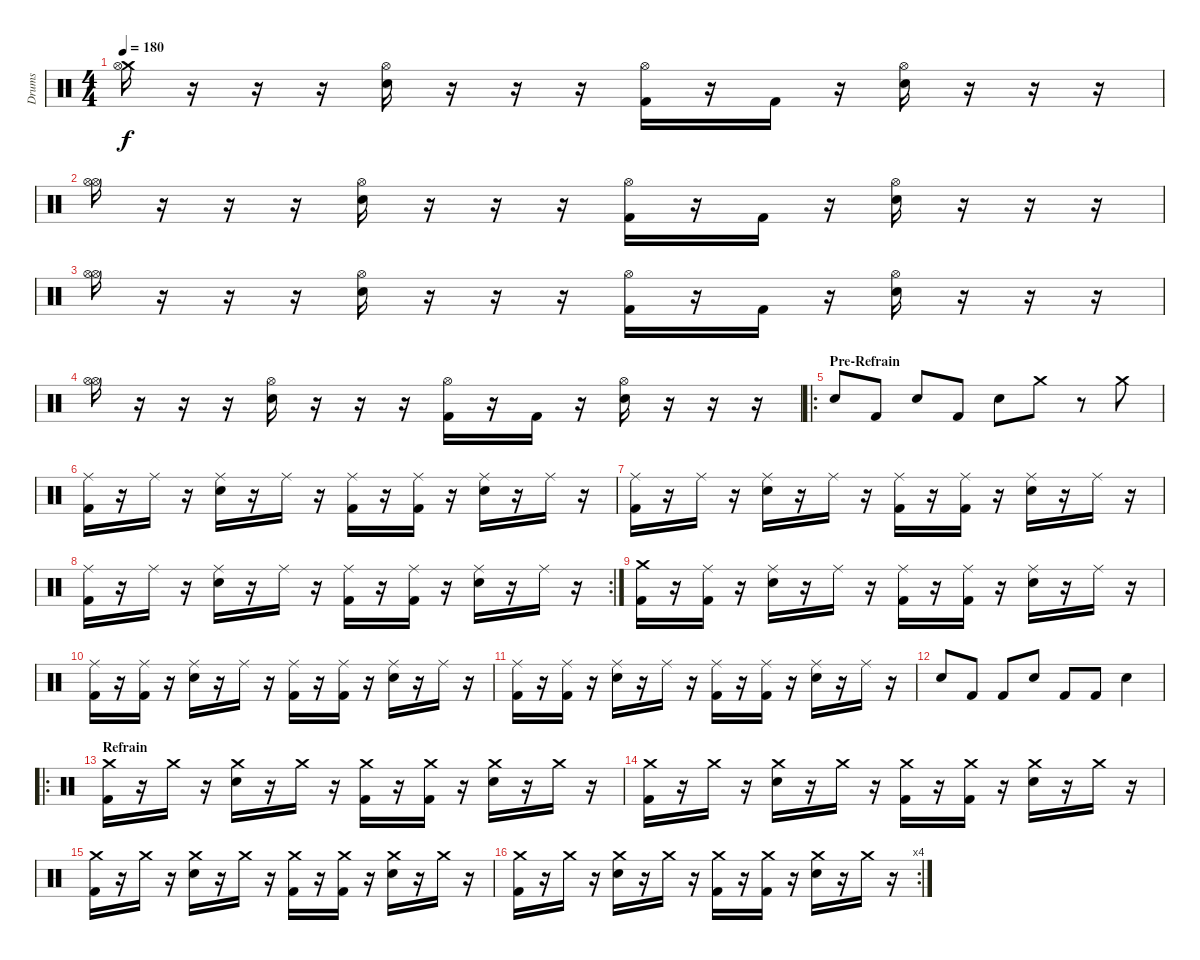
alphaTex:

\track ("Drums" "Drums") {instrument percussion}
\staff {score}
\articulation defaults
\ts (4 4)
\tempo 180
\clef neutral
\ks c
("Crash medium (hit)" "Hi-Hat (open)").16{dy f} r.16 r.16 r.16 ("Hi-Hat (open)" "Electric Snare (hit)").16 r.16 r.16 r.16 ("Hi-Hat (open)" "Kick (hit) 2").16 r.16 "Kick (hit) 2".16 r.16 ("Hi-Hat (open)" "Electric Snare (hit)").16 r.16 r.16 r.16 |
("Hi-Hat (open)" "Hi-Hat (open)").16 r.16 r.16 r.16 ("Hi-Hat (open)" "Electric Snare (hit)").16 r.16 r.16 r.16 ("Hi-Hat (open)" "Kick (hit) 2").16 r.16 "Kick (hit) 2".16 r.16 ("Hi-Hat (open)" "Electric Snare (hit)").16 r.16 r.16 r.16 |
("Hi-Hat (open)" "Hi-Hat (open)").16 r.16 r.16 r.16 ("Hi-Hat (open)" "Electric Snare (hit)").16 r.16 r.16 r.16 ("Hi-Hat (open)" "Kick (hit) 2").16 r.16 "Kick (hit) 2".16 r.16 ("Hi-Hat (open)" "Electric Snare (hit)").16 r.16 r.16 r.16 |
("Hi-Hat (open)" "Hi-Hat (open)").16 r.16 r.16 r.16 ("Hi-Hat (open)" "Electric Snare (hit)").16 r.16 r.16 r.16 ("Hi-Hat (open)" "Kick (hit) 2").16 r.16 "Kick (hit) 2".16 r.16 ("Hi-Hat (open)" "Electric Snare (hit)").16 r.16 r.16 r.16 |
\ro
\section ("" "Pre-Refrain")
"Electric Snare (hit)".8 "Kick (hit) 2".8 "Electric Snare (hit)".8 "Kick (hit) 2".8 "Electric Snare (hit)".8 "Crash medium (hit)".8 r.8 "Crash medium (hit)".8 |
("Ride (middle)" "Kick (hit) 2").16 r.16 "Ride (middle)".16 r.16 ("Ride (middle)" "Electric Snare (hit)").16 r.16 "Ride (middle)".16 r.16 ("Ride (middle)" "Kick (hit) 2").16 r.16 ("Ride (middle)" "Kick (hit) 2").16 r.16 ("Ride (middle)" "Electric Snare (hit)").16 r.16 "Ride (middle)".16 r.16 |
("Ride (middle)" "Kick (hit) 2").16 r.16 "Ride (middle)".16 r.16 ("Ride (middle)" "Electric Snare (hit)").16 r.16 "Ride (middle)".16 r.16 ("Ride (middle)" "Kick (hit) 2").16 r.16 ("Ride (middle)" "Kick (hit) 2").16 r.16 ("Ride (middle)" "Electric Snare (hit)").16 r.16 "Ride (middle)".16 r.16 |
\rc 2
("Ride (middle)" "Kick (hit) 2").16 r.16 "Ride (middle)".16 r.16 ("Ride (middle)" "Electric Snare (hit)").16 r.16 "Ride (middle)".16 r.16 ("Ride (middle)" "Kick (hit) 2").16 r.16 ("Ride (middle)" "Kick (hit) 2").16 r.16 ("Ride (middle)" "Electric Snare (hit)").16 r.16 "Ride (middle)".16 r.16 |
("Crash medium (hit)" "Kick (hit) 2").16 r.16 ("Ride (middle)" "Kick (hit) 2").16 r.16 ("Ride (middle)" "Electric Snare (hit)").16 r.16 "Ride (middle)".16 r.16 ("Ride (middle)" "Kick (hit) 2").16 r.16 ("Ride (middle)" "Kick (hit) 2").16 r.16 ("Ride (middle)" "Electric Snare (hit)").16 r.16 "Ride (middle)".16 r.16 |
("Ride (middle)" "Kick (hit) 2").16 r.16 ("Ride (middle)" "Kick (hit) 2").16 r.16 ("Ride (middle)" "Electric Snare (hit)").16 r.16 "Ride (middle)".16 r.16 ("Ride (middle)" "Kick (hit) 2").16 r.16 ("Ride (middle)" "Kick (hit) 2").16 r.16 ("Ride (middle)" "Electric Snare (hit)").16 r.16 "Ride (middle)".16 r.16 |
("Ride (middle)" "Kick (hit) 2").16 r.16 ("Ride (middle)" "Kick (hit) 2").16 r.16 ("Ride (middle)" "Electric Snare (hit)").16 r.16 "Ride (middle)".16 r.16 ("Ride (middle)" "Kick (hit) 2").16 r.16 ("Ride (middle)" "Kick (hit) 2").16 r.16 ("Ride (middle)" "Electric Snare (hit)").16 r.16 "Ride (middle)".16 r.16 |
"Electric Snare (hit)".8 "Kick (hit) 2".8 "Kick (hit) 2".8 "Electric Snare (hit)".8 "Kick (hit) 2".8 "Kick (hit) 2".8 "Electric Snare (hit)".4 |
\ro
\section ("" "Refrain")
("Crash medium (hit)" "Kick (hit) 2").16 r.16 "Crash medium (hit)".16 r.16 ("Crash medium (hit)" "Electric Snare (hit)").16 r.16 "Crash medium (hit)".16 r.16 ("Crash medium (hit)" "Kick (hit) 2").16 r.16 ("Crash medium (hit)" "Kick (hit) 2").16 r.16 ("Crash medium (hit)" "Electric Snare (hit)").16 r.16 "Crash medium (hit)".16 r.16 |
("Crash medium (hit)" "Kick (hit) 2").16 r.16 "Crash medium (hit)".16 r.16 ("Crash medium (hit)" "Electric Snare (hit)").16 r.16 "Crash medium (hit)".16 r.16 ("Crash medium (hit)" "Kick (hit) 2").16 r.16 ("Crash medium (hit)" "Kick (hit) 2").16 r.16 ("Crash medium (hit)" "Electric Snare (hit)").16 r.16 "Crash medium (hit)".16 r.16 |
("Crash medium (hit)" "Kick (hit) 2").16 r.16 "Crash medium (hit)".16 r.16 ("Crash medium (hit)" "Electric Snare (hit)").16 r.16 "Crash medium (hit)".16 r.16 ("Crash medium (hit)" "Kick (hit) 2").16 r.16 ("Crash medium (hit)" "Kick (hit) 2").16 r.16 ("Crash medium (hit)" "Electric Snare (hit)").16 r.16 "Crash medium (hit)".16 r.16 |
\rc 4
("Crash medium (hit)" "Kick (hit) 2").16 r.16 "Crash medium (hit)".16 r.16 ("Crash medium (hit)" "Electric Snare (hit)").16 r.16 "Crash medium (hit)".16 r.16 ("Crash medium (hit)" "Kick (hit) 2").16 r.16 ("Crash medium (hit)" "Kick (hit) 2").16 r.16 ("Crash medium (hit)" "Electric Snare (hit)").16 r.16 "Crash medium (hit)".16 r.16
